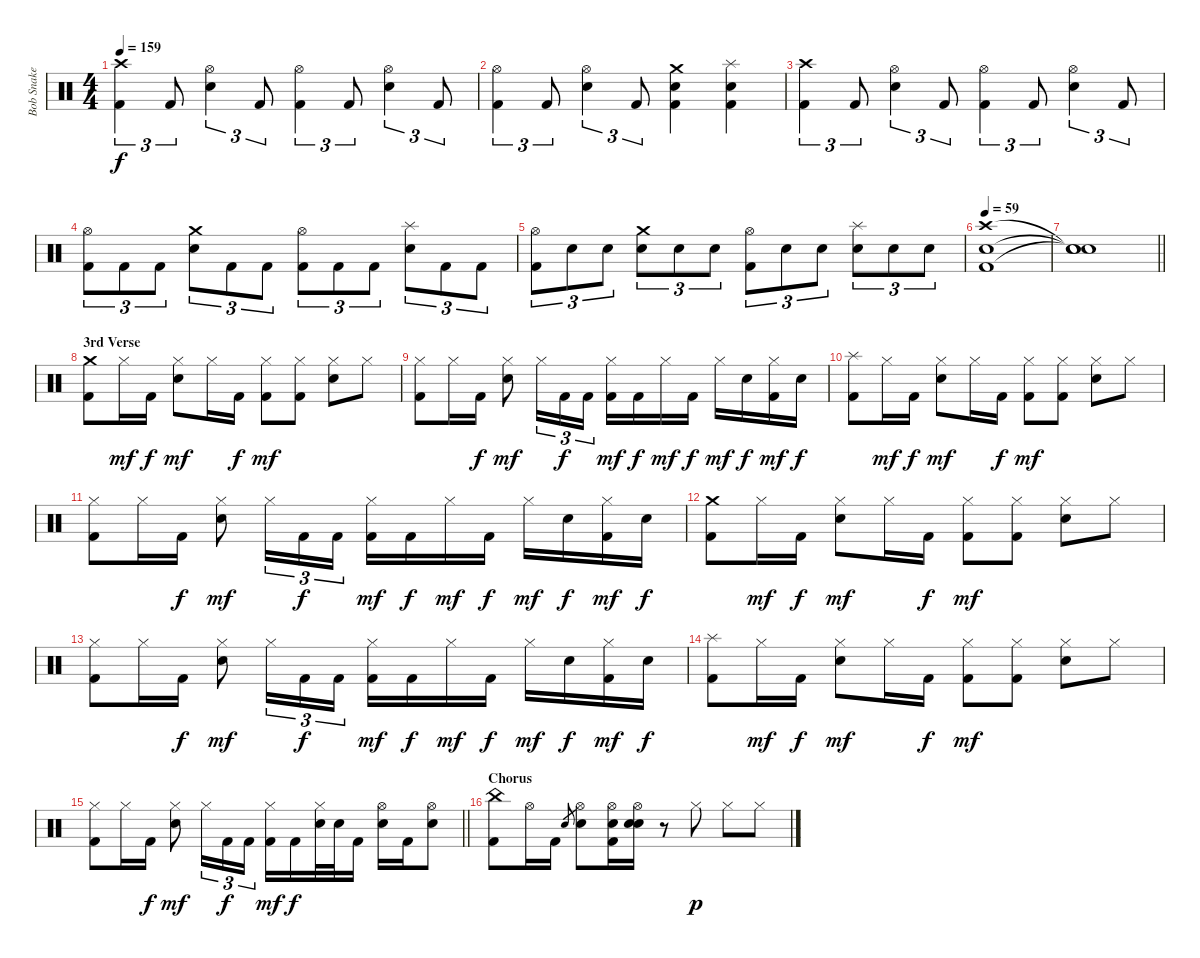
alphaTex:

\track ("Bob Snake" "Bob Snake") {instrument percussion}
\staff {score}
\articulation defaults
\ts (4 4)
\tempo 159
\clef neutral
\ks c
("Crash high (hit)" "Kick (hit) 2").4{tu (3 2) dy f} "Kick (hit) 2".8{tu (3 2)} ("Hi-Hat (open)" "Snare (hit) 2").4{tu (3 2)} "Kick (hit) 2".8{tu (3 2)} ("Hi-Hat (open)" "Kick (hit) 2").4{tu (3 2)} "Kick (hit) 2".8{tu (3 2)} ("Hi-Hat (open)" "Snare (hit) 2").4{tu (3 2)} "Kick (hit) 2".8{tu (3 2)} |
("Hi-Hat (open)" "Kick (hit) 2").4{tu (3 2)} "Kick (hit) 2".8{tu (3 2)} ("Hi-Hat (open)" "Snare (hit) 2").4{tu (3 2)} "Kick (hit) 2".8{tu (3 2)} ("Crash medium (hit)" "Snare (hit) 2" "Kick (hit) 2").4 ("Splash (hit)" "Snare (hit) 2" "Kick (hit) 2").4 |
("Crash high (hit)" "Kick (hit) 2").4{tu (3 2)} "Kick (hit) 2".8{tu (3 2)} ("Hi-Hat (open)" "Snare (hit) 2").4{tu (3 2)} "Kick (hit) 2".8{tu (3 2)} ("Hi-Hat (open)" "Kick (hit) 2").4{tu (3 2)} "Kick (hit) 2".8{tu (3 2)} ("Hi-Hat (open)" "Snare (hit) 2").4{tu (3 2)} "Kick (hit) 2".8{tu (3 2)} |
("Hi-Hat (open)" "Kick (hit) 2").8{tu (3 2)} "Kick (hit) 2".8{tu (3 2)} "Kick (hit) 2".8{tu (3 2)} ("Crash medium (hit)" "Snare (hit) 2").8{tu (3 2)} "Kick (hit) 2".8{tu (3 2)} "Kick (hit) 2".8{tu (3 2)} ("Hi-Hat (open)" "Kick (hit) 2").8{tu (3 2)} "Kick (hit) 2".8{tu (3 2)} "Kick (hit) 2".8{tu (3 2)} ("Splash (hit)" "Snare (hit) 2").8{tu (3 2)} "Kick (hit) 2".8{tu (3 2)} "Kick (hit) 2".8{tu (3 2)} |
("Hi-Hat (open)" "Kick (hit) 2").8{tu (3 2)} "Snare (hit) 2".8{tu (3 2)} "Snare (hit) 2".8{tu (3 2)} ("Crash medium (hit)" "Snare (hit) 2").8{tu (3 2)} "Snare (hit) 2".8{tu (3 2)} "Snare (hit) 2".8{tu (3 2)} ("Hi-Hat (open)" "Kick (hit) 2").8{tu (3 2)} "Snare (hit) 2".8{tu (3 2)} "Snare (hit) 2".8{tu (3 2)} ("Splash (hit)" "Snare (hit) 2").8{tu (3 2)} "Snare (hit) 2".8{tu (3 2)} "Snare (hit) 2".8{tu (3 2)} |
\tempo 59
("Crash high (hit)" "Snare (hit) 2" "Kick (hit) 2").1 |
\barLineRight lightlight
("Snare (hit)"{t} "Snare (hit)"{t} "Snare (hit)"{t}).1 |
\section ("" "3rd Verse")
("Crash medium (hit)" "Kick (hit) 2").8 "Hi-Hat (closed)".16{dy mf} "Kick (hit) 2".16{dy f} ("Hi-Hat (closed)" "Snare (hit) 2").8{dy mf} "Hi-Hat (closed)".16 "Kick (hit) 2".16{dy f} ("Hi-Hat (closed)" "Kick (hit) 2").8{dy mf} ("Hi-Hat (closed)" "Kick (hit) 2").8 ("Hi-Hat (closed)" "Snare (hit) 2").8 "Hi-Hat (closed)".8 |
("Hi-Hat (closed)" "Kick (hit) 2").8 "Hi-Hat (closed)".16 "Kick (hit) 2".16{dy f} ("Hi-Hat (closed)" "Snare (hit) 2").8{dy mf} "Hi-Hat (closed)".16{tu (3 2)} "Kick (hit) 2".16{tu (3 2) dy f} "Kick (hit) 2".16{tu (3 2)} ("Hi-Hat (closed)" "Kick (hit) 2").16{dy mf} "Kick (hit) 2".16{dy f} "Hi-Hat (closed)".16{dy mf} "Kick (hit) 2".16{dy f} "Hi-Hat (closed)".16{dy mf} "Snare (hit) 2".16{dy f} ("Hi-Hat (closed)" "Kick (hit) 2").16{dy mf} "Snare (hit) 2".16{dy f} |
("Splash (hit)" "Kick (hit) 2").8 "Hi-Hat (closed)".16{dy mf} "Kick (hit) 2".16{dy f} ("Hi-Hat (closed)" "Snare (hit) 2").8{dy mf} "Hi-Hat (closed)".16 "Kick (hit) 2".16{dy f} ("Hi-Hat (closed)" "Kick (hit) 2").8{dy mf} ("Hi-Hat (closed)" "Kick (hit) 2").8 ("Hi-Hat (closed)" "Snare (hit) 2").8 "Hi-Hat (closed)".8 |
("Hi-Hat (closed)" "Kick (hit) 2").8 "Hi-Hat (closed)".16 "Kick (hit) 2".16{dy f} ("Hi-Hat (closed)" "Snare (hit) 2").8{dy mf} "Hi-Hat (closed)".16{tu (3 2)} "Kick (hit) 2".16{tu (3 2) dy f} "Kick (hit) 2".16{tu (3 2)} ("Hi-Hat (closed)" "Kick (hit) 2").16{dy mf} "Kick (hit) 2".16{dy f} "Hi-Hat (closed)".16{dy mf} "Kick (hit) 2".16{dy f} "Hi-Hat (closed)".16{dy mf} "Snare (hit) 2".16{dy f} ("Hi-Hat (closed)" "Kick (hit) 2").16{dy mf} "Snare (hit) 2".16{dy f} |
("Crash medium (hit)" "Kick (hit) 2").8 "Hi-Hat (closed)".16{dy mf} "Kick (hit) 2".16{dy f} ("Hi-Hat (closed)" "Snare (hit) 2").8{dy mf} "Hi-Hat (closed)".16 "Kick (hit) 2".16{dy f} ("Hi-Hat (closed)" "Kick (hit) 2").8{dy mf} ("Hi-Hat (closed)" "Kick (hit) 2").8 ("Hi-Hat (closed)" "Snare (hit) 2").8 "Hi-Hat (closed)".8 |
("Hi-Hat (closed)" "Kick (hit) 2").8 "Hi-Hat (closed)".16 "Kick (hit) 2".16{dy f} ("Hi-Hat (closed)" "Snare (hit) 2").8{dy mf} "Hi-Hat (closed)".16{tu (3 2)} "Kick (hit) 2".16{tu (3 2) dy f} "Kick (hit) 2".16{tu (3 2)} ("Hi-Hat (closed)" "Kick (hit) 2").16{dy mf} "Kick (hit) 2".16{dy f} "Hi-Hat (closed)".16{dy mf} "Kick (hit) 2".16{dy f} "Hi-Hat (closed)".16{dy mf} "Snare (hit) 2".16{dy f} ("Hi-Hat (closed)" "Kick (hit) 2").16{dy mf} "Snare (hit) 2".16{dy f} |
("Splash (hit)" "Kick (hit) 2").8 "Hi-Hat (closed)".16{dy mf} "Kick (hit) 2".16{dy f} ("Hi-Hat (closed)" "Snare (hit) 2").8{dy mf} "Hi-Hat (closed)".16 "Kick (hit) 2".16{dy f} ("Hi-Hat (closed)" "Kick (hit) 2").8{dy mf} ("Hi-Hat (closed)" "Kick (hit) 2").8 ("Hi-Hat (closed)" "Snare (hit) 2").8 "Hi-Hat (closed)".8 |
\barLineRight lightlight
("Hi-Hat (closed)" "Kick (hit) 2").8 "Hi-Hat (closed)".16 "Kick (hit) 2".16{dy f} ("Hi-Hat (closed)" "Snare (hit) 2").8{dy mf} "Hi-Hat (closed)".16{tu (3 2)} "Kick (hit) 2".16{tu (3 2) dy f} "Kick (hit) 2".16{tu (3 2)} ("Hi-Hat (closed)" "Kick (hit) 2").16{dy mf} "Kick (hit) 2".16{dy f} ("Hi-Hat (closed)" "Snare (hit) 2").32 "Snare (hit) 2".32 "Kick (hit) 2".16 ("Hi-Hat (open)" "Snare (hit) 2").16 "Kick (hit) 2".16 ("Hi-Hat (open)" "Snare (hit) 2").8 |
\section ("" "Chorus")
("China (hit)" "Kick (hit) 2").8 "Hi-Hat (open)".16 "Kick (hit) 2".16 "Snare (hit) 2".8{gr} ("Hi-Hat (open)" "Snare (hit) 2").8 ("Hi-Hat (open)" "Snare (hit) 2" "Kick (hit) 2").16 ("Hi-Hat (open)" "Snare (hit) 2" "Snare (hit) 2").16 r.8 "Hi-Hat (closed)".8{dy p} "Hi-Hat (closed)".8 "Hi-Hat (closed)".8
